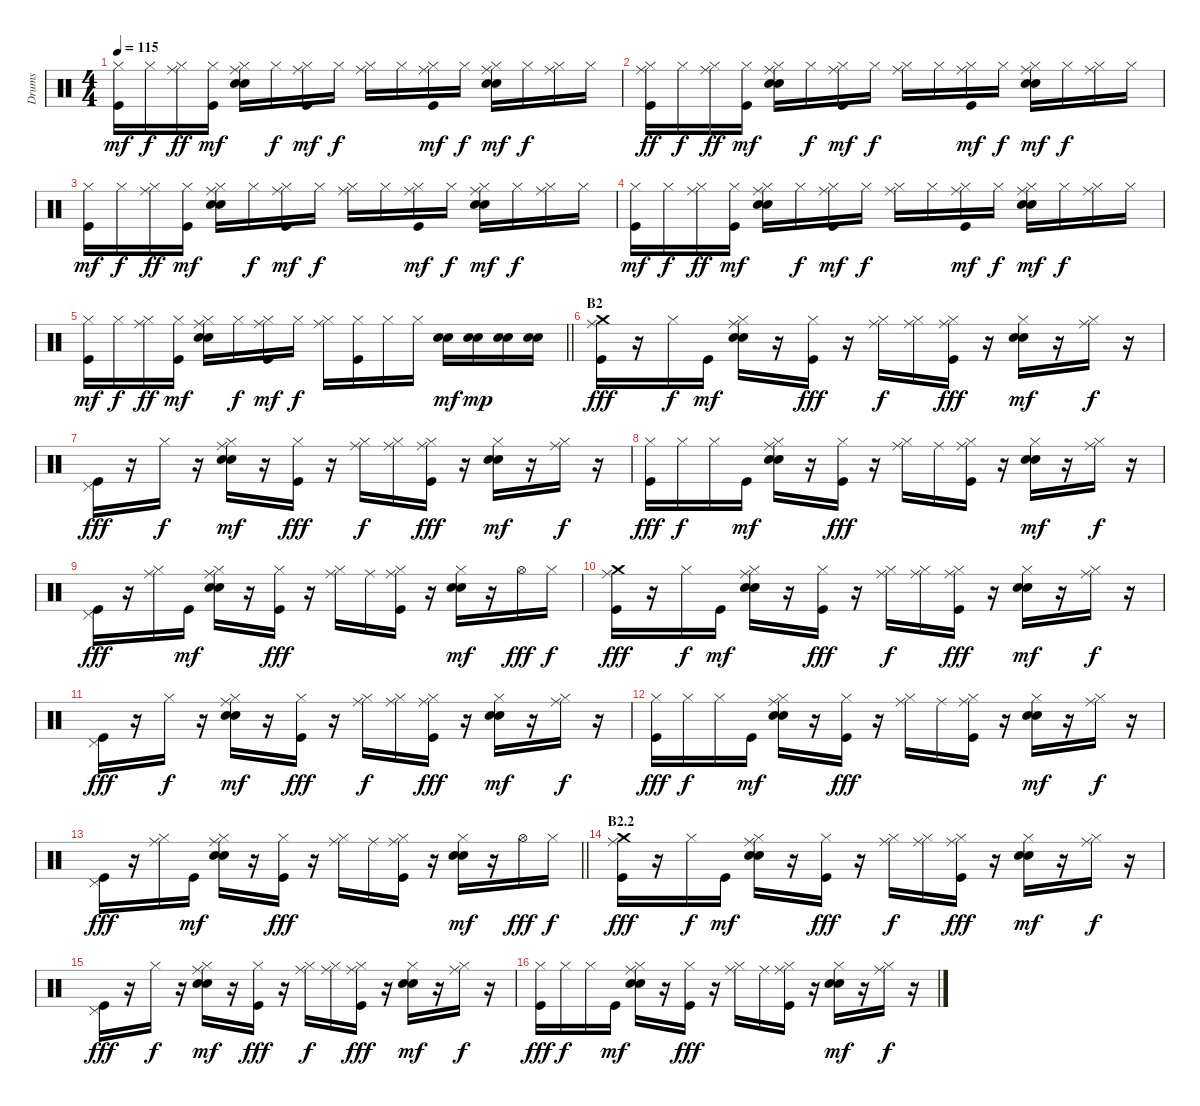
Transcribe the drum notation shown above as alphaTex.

\track ("Drums" "Drums") {instrument percussion}
\staff {score}
\articulation defaults
\ts (4 4)
\tempo 115
\clef neutral
\ks c
("Hi-Hat (closed)" "Kick (hit)").16{dy mf} "Hi-Hat (closed)".16{dy f} ("Hi-Hat (closed)" "Ride (middle)").16{dy ff} ("Hi-Hat (closed)" "Kick (hit)").16{dy mf} ("Hi-Hat (closed)" "Ride (middle)" "Electric Snare (hit)" "Snare (hit) 2").16 "Hi-Hat (closed)".16{dy f} ("Hi-Hat (closed)" "Ride (middle)" "Kick (hit)").16{dy mf} "Hi-Hat (closed)".16{dy f} ("Hi-Hat (closed)" "Ride (middle)").16 "Hi-Hat (closed)".16 ("Hi-Hat (closed)" "Ride (middle)" "Kick (hit)").16{dy mf} "Hi-Hat (closed)".16{dy f} ("Hi-Hat (closed)" "Ride (middle)" "Electric Snare (hit)" "Snare (hit) 2").16{dy mf} "Hi-Hat (closed)".16{dy f} ("Hi-Hat (closed)" "Ride (middle)").16 "Hi-Hat (closed)".16 |
("Hi-Hat (closed)" "Ride (middle)" "Kick (hit)").16{dy ff} "Hi-Hat (closed)".16{dy f} ("Hi-Hat (closed)" "Ride (middle)").16{dy ff} ("Hi-Hat (closed)" "Kick (hit)").16{dy mf} ("Hi-Hat (closed)" "Ride (middle)" "Electric Snare (hit)" "Snare (hit) 2").16 "Hi-Hat (closed)".16{dy f} ("Hi-Hat (closed)" "Ride (middle)" "Kick (hit)").16{dy mf} "Hi-Hat (closed)".16{dy f} ("Hi-Hat (closed)" "Ride (middle)").16 "Hi-Hat (closed)".16 ("Hi-Hat (closed)" "Ride (middle)" "Kick (hit)").16{dy mf} "Hi-Hat (closed)".16{dy f} ("Hi-Hat (closed)" "Ride (middle)" "Electric Snare (hit)" "Snare (hit) 2").16{dy mf} "Hi-Hat (closed)".16{dy f} ("Hi-Hat (closed)" "Ride (middle)").16 "Hi-Hat (closed)".16 |
("Hi-Hat (closed)" "Kick (hit)").16{dy mf} "Hi-Hat (closed)".16{dy f} ("Hi-Hat (closed)" "Ride (middle)").16{dy ff} ("Hi-Hat (closed)" "Kick (hit)").16{dy mf} ("Hi-Hat (closed)" "Ride (middle)" "Electric Snare (hit)" "Snare (hit) 2").16 "Hi-Hat (closed)".16{dy f} ("Hi-Hat (closed)" "Ride (middle)" "Kick (hit)").16{dy mf} "Hi-Hat (closed)".16{dy f} ("Hi-Hat (closed)" "Ride (middle)").16 "Hi-Hat (closed)".16 ("Hi-Hat (closed)" "Ride (middle)" "Kick (hit)").16{dy mf} "Hi-Hat (closed)".16{dy f} ("Hi-Hat (closed)" "Ride (middle)" "Electric Snare (hit)" "Snare (hit) 2").16{dy mf} "Hi-Hat (closed)".16{dy f} ("Hi-Hat (closed)" "Ride (middle)").16 "Hi-Hat (closed)".16 |
("Hi-Hat (closed)" "Kick (hit)").16{dy mf} "Hi-Hat (closed)".16{dy f} ("Hi-Hat (closed)" "Ride (middle)").16{dy ff} ("Hi-Hat (closed)" "Kick (hit)").16{dy mf} ("Hi-Hat (closed)" "Ride (middle)" "Electric Snare (hit)" "Snare (hit) 2").16 "Hi-Hat (closed)".16{dy f} ("Hi-Hat (closed)" "Ride (middle)" "Kick (hit)").16{dy mf} "Hi-Hat (closed)".16{dy f} ("Hi-Hat (closed)" "Ride (middle)").16 "Hi-Hat (closed)".16 ("Hi-Hat (closed)" "Ride (middle)" "Kick (hit)").16{dy mf} "Hi-Hat (closed)".16{dy f} ("Hi-Hat (closed)" "Ride (middle)" "Electric Snare (hit)" "Snare (hit) 2").16{dy mf} "Hi-Hat (closed)".16{dy f} ("Hi-Hat (closed)" "Ride (middle)").16 "Hi-Hat (closed)".16 |
\barLineRight lightlight
("Hi-Hat (closed)" "Kick (hit)").16{dy mf} "Hi-Hat (closed)".16{dy f} ("Hi-Hat (closed)" "Ride (middle)").16{dy ff} ("Hi-Hat (closed)" "Kick (hit)").16{dy mf} ("Hi-Hat (closed)" "Ride (middle)" "Electric Snare (hit)" "Snare (hit) 2").16 "Hi-Hat (closed)".16{dy f} ("Hi-Hat (closed)" "Ride (middle)" "Kick (hit)").16{dy mf} "Hi-Hat (closed)".16{dy f} ("Hi-Hat (closed)" "Ride (middle)").16 ("Hi-Hat (closed)" "Kick (hit)").16 "Hi-Hat (closed)".16 "Hi-Hat (closed)".16 ("Electric Snare (hit)" "Snare (hit) 2").16{dy mf} ("Electric Snare (hit)" "Snare (hit) 2").16{dy mp} ("Electric Snare (hit)" "Snare (hit) 2").16 ("Snare (hit) 2" "Electric Snare (hit)").16 |
\section ("" "B2")
("Crash medium (hit)" "Ride (middle)" "Kick (hit)").16{dy fff} r.16 "Hi-Hat (closed)".16{dy f} "Kick (hit)".16{dy mf} ("Hi-Hat (closed)" "Ride (middle)" "Electric Snare (hit)" "Snare (hit) 2").16 r.16 ("Hi-Hat (closed)" "Kick (hit)").16{dy fff} r.16 ("Hi-Hat (closed)" "Ride (middle)").16{dy f} ("Hi-Hat (closed)" "Ride (middle)").16 ("Hi-Hat (closed)" "Ride (middle)" "Kick (hit)").16{dy fff} r.16 ("Hi-Hat (closed)" "Electric Snare (hit)" "Snare (hit) 2").16{dy mf} r.16 ("Hi-Hat (closed)" "Ride (middle)").16{dy f} r.16 |
("Pedal Hi-Hat (hit)" "Kick (hit)").16{dy fff} r.16 "Hi-Hat (closed)".16{dy f} r.16 ("Hi-Hat (closed)" "Ride (middle)" "Electric Snare (hit)" "Snare (hit) 2").16{dy mf} r.16 ("Hi-Hat (closed)" "Kick (hit)").16{dy fff} r.16 ("Hi-Hat (closed)" "Ride (middle)").16{dy f} ("Hi-Hat (closed)" "Ride (middle)").16 ("Hi-Hat (closed)" "Ride (middle)" "Kick (hit)").16{dy fff} r.16 ("Hi-Hat (closed)" "Electric Snare (hit)" "Snare (hit) 2").16{dy mf} r.16 ("Hi-Hat (closed)" "Ride (middle)").16{dy f} r.16 |
("Hi-Hat (closed)" "Kick (hit)").16{dy fff} "Hi-Hat (closed)".16{dy f} "Hi-Hat (closed)".16 "Kick (hit)".16{dy mf} ("Hi-Hat (closed)" "Ride (middle)" "Electric Snare (hit)" "Snare (hit) 2").16 r.16 ("Hi-Hat (closed)" "Kick (hit)").16{dy fff} r.16 ("Hi-Hat (closed)" "Ride (middle)").16 "Ride (middle)".16 ("Hi-Hat (closed)" "Ride (middle)" "Kick (hit)").16 r.16 ("Hi-Hat (closed)" "Electric Snare (hit)" "Snare (hit) 2").16{dy mf} r.16 ("Hi-Hat (closed)" "Ride (middle)").16{dy f} r.16 |
("Pedal Hi-Hat (hit)" "Kick (hit)").16{dy fff} r.16 ("Hi-Hat (closed)" "Ride (middle)").16 "Kick (hit)".16{dy mf} ("Hi-Hat (closed)" "Ride (middle)" "Electric Snare (hit)" "Snare (hit) 2").16 r.16 ("Hi-Hat (closed)" "Kick (hit)").16{dy fff} r.16 ("Hi-Hat (closed)" "Ride (middle)").16 "Ride (middle)".16 ("Hi-Hat (closed)" "Ride (middle)" "Kick (hit)").16 r.16 ("Hi-Hat (closed)" "Electric Snare (hit)" "Snare (hit) 2").16{dy mf} r.16 "Hi-Hat (open)".16{dy fff} "Hi-Hat (closed)".16{dy f} |
("Crash medium (hit)" "Ride (middle)" "Kick (hit)").16{dy fff} r.16 "Hi-Hat (closed)".16{dy f} "Kick (hit)".16{dy mf} ("Hi-Hat (closed)" "Ride (middle)" "Electric Snare (hit)" "Snare (hit) 2").16 r.16 ("Hi-Hat (closed)" "Kick (hit)").16{dy fff} r.16 ("Hi-Hat (closed)" "Ride (middle)").16{dy f} ("Hi-Hat (closed)" "Ride (middle)").16 ("Hi-Hat (closed)" "Ride (middle)" "Kick (hit)").16{dy fff} r.16 ("Hi-Hat (closed)" "Electric Snare (hit)" "Snare (hit) 2").16{dy mf} r.16 ("Hi-Hat (closed)" "Ride (middle)").16{dy f} r.16 |
("Pedal Hi-Hat (hit)" "Kick (hit)").16{dy fff} r.16 "Hi-Hat (closed)".16{dy f} r.16 ("Hi-Hat (closed)" "Ride (middle)" "Electric Snare (hit)" "Snare (hit) 2").16{dy mf} r.16 ("Hi-Hat (closed)" "Kick (hit)").16{dy fff} r.16 ("Hi-Hat (closed)" "Ride (middle)").16{dy f} ("Hi-Hat (closed)" "Ride (middle)").16 ("Hi-Hat (closed)" "Ride (middle)" "Kick (hit)").16{dy fff} r.16 ("Hi-Hat (closed)" "Electric Snare (hit)" "Snare (hit) 2").16{dy mf} r.16 ("Hi-Hat (closed)" "Ride (middle)").16{dy f} r.16 |
("Hi-Hat (closed)" "Kick (hit)").16{dy fff} "Hi-Hat (closed)".16{dy f} "Hi-Hat (closed)".16 "Kick (hit)".16{dy mf} ("Hi-Hat (closed)" "Ride (middle)" "Electric Snare (hit)" "Snare (hit) 2").16 r.16 ("Hi-Hat (closed)" "Kick (hit)").16{dy fff} r.16 ("Hi-Hat (closed)" "Ride (middle)").16 "Ride (middle)".16 ("Hi-Hat (closed)" "Ride (middle)" "Kick (hit)").16 r.16 ("Hi-Hat (closed)" "Electric Snare (hit)" "Snare (hit) 2").16{dy mf} r.16 ("Hi-Hat (closed)" "Ride (middle)").16{dy f} r.16 |
\barLineRight lightlight
("Pedal Hi-Hat (hit)" "Kick (hit)").16{dy fff} r.16 ("Hi-Hat (closed)" "Ride (middle)").16 "Kick (hit)".16{dy mf} ("Hi-Hat (closed)" "Ride (middle)" "Electric Snare (hit)" "Snare (hit) 2").16 r.16 ("Hi-Hat (closed)" "Kick (hit)").16{dy fff} r.16 ("Hi-Hat (closed)" "Ride (middle)").16 "Ride (middle)".16 ("Hi-Hat (closed)" "Ride (middle)" "Kick (hit)").16 r.16 ("Hi-Hat (closed)" "Electric Snare (hit)" "Snare (hit) 2").16{dy mf} r.16 "Hi-Hat (open)".16{dy fff} "Hi-Hat (closed)".16{dy f} |
\section ("" "B2.2")
("Crash medium (hit)" "Ride (middle)" "Kick (hit)").16{dy fff} r.16 "Hi-Hat (closed)".16{dy f} "Kick (hit)".16{dy mf} ("Hi-Hat (closed)" "Ride (middle)" "Electric Snare (hit)" "Snare (hit) 2").16 r.16 ("Hi-Hat (closed)" "Kick (hit)").16{dy fff} r.16 ("Hi-Hat (closed)" "Ride (middle)").16{dy f} ("Hi-Hat (closed)" "Ride (middle)").16 ("Hi-Hat (closed)" "Ride (middle)" "Kick (hit)").16{dy fff} r.16 ("Hi-Hat (closed)" "Electric Snare (hit)" "Snare (hit) 2").16{dy mf} r.16 ("Hi-Hat (closed)" "Ride (middle)").16{dy f} r.16 |
("Pedal Hi-Hat (hit)" "Kick (hit)").16{dy fff} r.16 "Hi-Hat (closed)".16{dy f} r.16 ("Hi-Hat (closed)" "Ride (middle)" "Electric Snare (hit)" "Snare (hit) 2").16{dy mf} r.16 ("Hi-Hat (closed)" "Kick (hit)").16{dy fff} r.16 ("Hi-Hat (closed)" "Ride (middle)").16{dy f} ("Hi-Hat (closed)" "Ride (middle)").16 ("Hi-Hat (closed)" "Ride (middle)" "Kick (hit)").16{dy fff} r.16 ("Hi-Hat (closed)" "Electric Snare (hit)" "Snare (hit) 2").16{dy mf} r.16 ("Hi-Hat (closed)" "Ride (middle)").16{dy f} r.16 |
("Hi-Hat (closed)" "Kick (hit)").16{dy fff} "Hi-Hat (closed)".16{dy f} "Hi-Hat (closed)".16 "Kick (hit)".16{dy mf} ("Hi-Hat (closed)" "Ride (middle)" "Electric Snare (hit)" "Snare (hit) 2").16 r.16 ("Hi-Hat (closed)" "Kick (hit)").16{dy fff} r.16 ("Hi-Hat (closed)" "Ride (middle)").16 "Ride (middle)".16 ("Hi-Hat (closed)" "Ride (middle)" "Kick (hit)").16 r.16 ("Hi-Hat (closed)" "Electric Snare (hit)" "Snare (hit) 2").16{dy mf} r.16 ("Hi-Hat (closed)" "Ride (middle)").16{dy f} r.16
